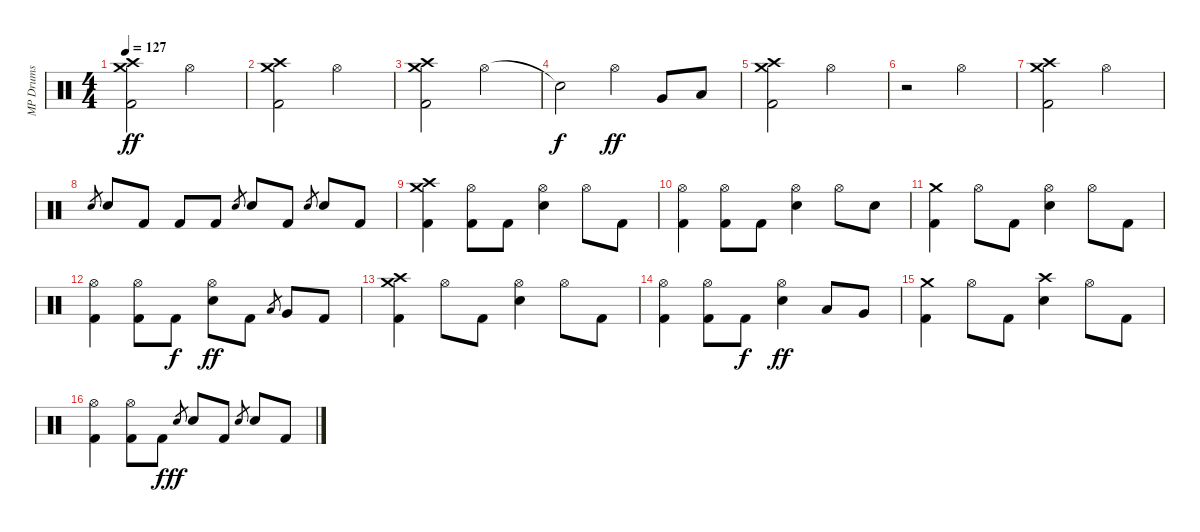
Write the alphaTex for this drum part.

\track ("MP Drums" "MP Drums") {instrument percussion}
\staff {score}
\articulation defaults
\ts (4 4)
\tempo 127
\clef neutral
\ks c
("Crash high (hit)" "Crash medium (hit)" "Kick (hit) 2").2{dy ff} "Hi-Hat (open)".2 |
("Crash high (hit)" "Crash medium (hit)" "Kick (hit) 2").2 "Hi-Hat (open)".2 |
("Crash high (hit)" "Crash medium (hit)" "Kick (hit) 2").2 "Hi-Hat (open)".2 |
"Snare (hit)"{t}.2{dy f} "Hi-Hat (open)".4{dy ff} "Very Low Tom (hit)".8 "Low Floor Tom (hit)".8 |
("Crash high (hit)" "Crash medium (hit)" "Kick (hit) 2").2 "Hi-Hat (open)".2 |
r.2 "Hi-Hat (open)".2 |
("Crash high (hit)" "Crash medium (hit)" "Kick (hit) 2").2 "Hi-Hat (open)".2 |
"Snare (hit) 2".8{gr} "Snare (hit) 2".8 "Kick (hit) 2".8 "Kick (hit) 2".8 "Kick (hit) 2".8 "Snare (hit) 2".8{gr} "Snare (hit) 2".8 "Kick (hit) 2".8 "Snare (hit) 2".8{gr} "Snare (hit) 2".8 "Kick (hit) 2".8 |
("Crash high (hit)" "Crash medium (hit)" "Kick (hit) 2").4 ("Hi-Hat (open)" "Kick (hit) 2").8 "Kick (hit) 2".8 ("Hi-Hat (open)" "Snare (hit) 2").4 "Hi-Hat (open)".8 "Kick (hit) 2".8 |
("Hi-Hat (open)" "Kick (hit) 2").4 ("Hi-Hat (open)" "Kick (hit) 2").8 "Kick (hit) 2".8 ("Hi-Hat (open)" "Snare (hit) 2").4 "Hi-Hat (open)".8 "Snare (hit) 2".8 |
("Crash medium (hit)" "Kick (hit) 2").4 "Hi-Hat (open)".8 "Kick (hit) 2".8 ("Hi-Hat (open)" "Snare (hit) 2").4 "Hi-Hat (open)".8 "Kick (hit) 2".8 |
("Hi-Hat (open)" "Kick (hit) 2").4 ("Hi-Hat (open)" "Kick (hit) 2").8 "Kick (hit) 2".8{dy f} ("Hi-Hat (open)" "Snare (hit) 2").8{dy ff} "Kick (hit) 2".8 "Low Tom (hit)".8{gr} "Very Low Tom (hit)".8 "Kick (hit) 2".8 |
("Crash medium (hit)" "Crash high (hit)" "Kick (hit) 2").4 "Hi-Hat (open)".8 "Kick (hit) 2".8 ("Hi-Hat (open)" "Snare (hit) 2").4 "Hi-Hat (open)".8 "Kick (hit) 2".8 |
("Hi-Hat (open)" "Kick (hit) 2").4 ("Hi-Hat (open)" "Kick (hit) 2").8 "Kick (hit) 2".8{dy f} ("Hi-Hat (open)" "Snare (hit) 2").4{dy ff} "Low Tom (hit)".8 "Very Low Tom (hit)".8 |
("Crash medium (hit)" "Kick (hit) 2").4 "Hi-Hat (open)".8 "Kick (hit) 2".8 ("Crash high (hit)" "Snare (hit) 2").4 "Hi-Hat (open)".8 "Kick (hit) 2".8 |
("Hi-Hat (open)" "Kick (hit) 2").4 ("Hi-Hat (open)" "Kick (hit) 2").8 "Kick (hit) 2".8{dy f} "Snare (hit) 2".8{gr dy ff} "Snare (hit) 2".8 "Kick (hit) 2".8 "Snare (hit) 2".8{gr} "Snare (hit) 2".8 "Kick (hit) 2".8
